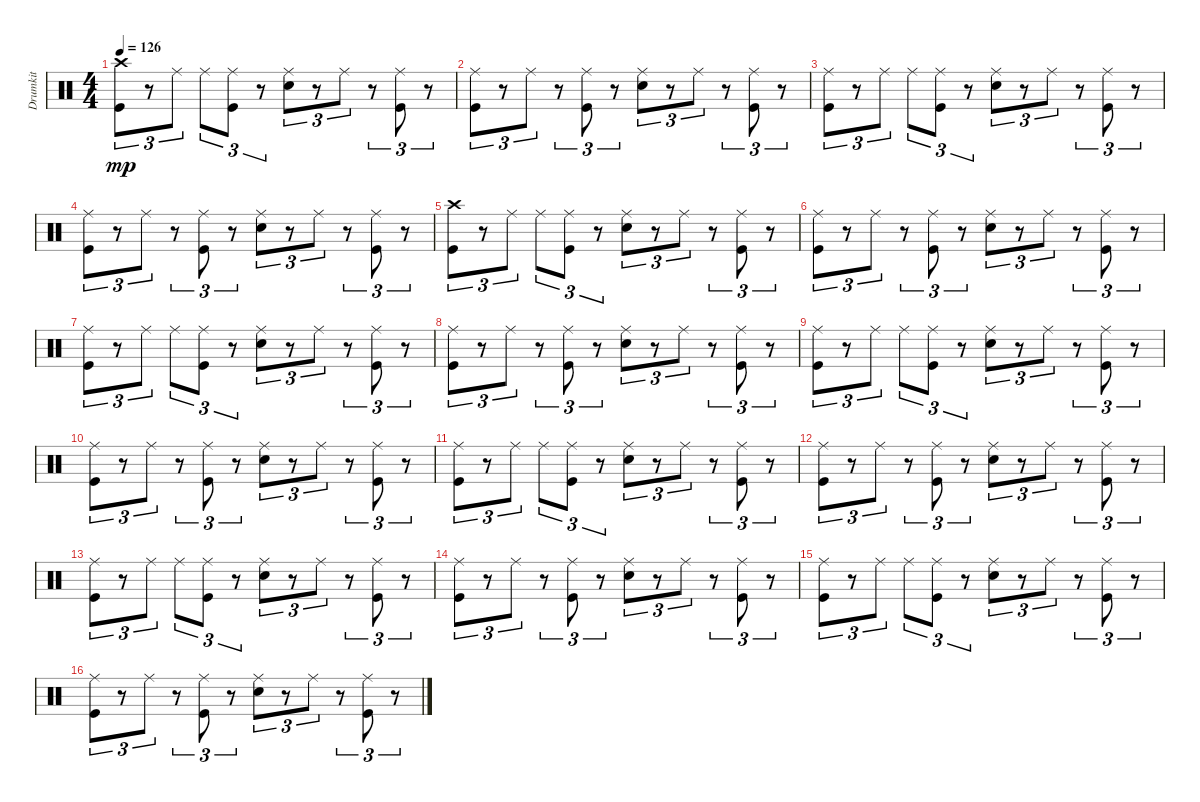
\track ("Drumkit" "Drumkit") {instrument percussion}
\staff {score}
\articulation defaults
\ts (4 4)
\tempo 126
\clef neutral
\ks c
("Crash high (hit)" "Kick (hit)").8{tu (3 2) dy mp} r.8{tu (3 2)} "Ride (middle)".8{tu (3 2)} "Ride (middle)".8{tu (3 2)} ("Kick (hit)" "Ride (middle)").8{tu (3 2)} r.8{tu (3 2)} ("Snare (hit) 2" "Ride (middle)").8{tu (3 2)} r.8{tu (3 2)} "Ride (middle)".8{tu (3 2)} r.8{tu (3 2)} ("Kick (hit)" "Ride (middle)").8{tu (3 2)} r.8{tu (3 2)} |
("Ride (middle)" "Kick (hit)").8{tu (3 2)} r.8{tu (3 2)} "Ride (middle)".8{tu (3 2)} r.8{tu (3 2)} ("Ride (middle)" "Kick (hit)").8{tu (3 2)} r.8{tu (3 2)} ("Ride (middle)" "Snare (hit) 2").8{tu (3 2)} r.8{tu (3 2)} "Ride (middle)".8{tu (3 2)} r.8{tu (3 2)} ("Ride (middle)" "Kick (hit)").8{tu (3 2)} r.8{tu (3 2)} |
("Ride (middle)" "Kick (hit)").8{tu (3 2)} r.8{tu (3 2)} "Ride (middle)".8{tu (3 2)} "Ride (middle)".8{tu (3 2)} ("Kick (hit)" "Ride (middle)").8{tu (3 2)} r.8{tu (3 2)} ("Snare (hit) 2" "Ride (middle)").8{tu (3 2)} r.8{tu (3 2)} "Ride (middle)".8{tu (3 2)} r.8{tu (3 2)} ("Kick (hit)" "Ride (middle)").8{tu (3 2)} r.8{tu (3 2)} |
("Ride (middle)" "Kick (hit)").8{tu (3 2)} r.8{tu (3 2)} "Ride (middle)".8{tu (3 2)} r.8{tu (3 2)} ("Ride (middle)" "Kick (hit)").8{tu (3 2)} r.8{tu (3 2)} ("Ride (middle)" "Snare (hit) 2").8{tu (3 2)} r.8{tu (3 2)} "Ride (middle)".8{tu (3 2)} r.8{tu (3 2)} ("Ride (middle)" "Kick (hit)").8{tu (3 2)} r.8{tu (3 2)} |
("Crash high (hit)" "Kick (hit)").8{tu (3 2)} r.8{tu (3 2)} "Ride (middle)".8{tu (3 2)} "Ride (middle)".8{tu (3 2)} ("Kick (hit)" "Ride (middle)").8{tu (3 2)} r.8{tu (3 2)} ("Snare (hit) 2" "Ride (middle)").8{tu (3 2)} r.8{tu (3 2)} "Ride (middle)".8{tu (3 2)} r.8{tu (3 2)} ("Kick (hit)" "Ride (middle)").8{tu (3 2)} r.8{tu (3 2)} |
("Ride (middle)" "Kick (hit)").8{tu (3 2)} r.8{tu (3 2)} "Ride (middle)".8{tu (3 2)} r.8{tu (3 2)} ("Ride (middle)" "Kick (hit)").8{tu (3 2)} r.8{tu (3 2)} ("Ride (middle)" "Snare (hit) 2").8{tu (3 2)} r.8{tu (3 2)} "Ride (middle)".8{tu (3 2)} r.8{tu (3 2)} ("Ride (middle)" "Kick (hit)").8{tu (3 2)} r.8{tu (3 2)} |
("Ride (middle)" "Kick (hit)").8{tu (3 2)} r.8{tu (3 2)} "Ride (middle)".8{tu (3 2)} "Ride (middle)".8{tu (3 2)} ("Kick (hit)" "Ride (middle)").8{tu (3 2)} r.8{tu (3 2)} ("Snare (hit) 2" "Ride (middle)").8{tu (3 2)} r.8{tu (3 2)} "Ride (middle)".8{tu (3 2)} r.8{tu (3 2)} ("Kick (hit)" "Ride (middle)").8{tu (3 2)} r.8{tu (3 2)} |
("Ride (middle)" "Kick (hit)").8{tu (3 2)} r.8{tu (3 2)} "Ride (middle)".8{tu (3 2)} r.8{tu (3 2)} ("Ride (middle)" "Kick (hit)").8{tu (3 2)} r.8{tu (3 2)} ("Ride (middle)" "Snare (hit) 2").8{tu (3 2)} r.8{tu (3 2)} "Ride (middle)".8{tu (3 2)} r.8{tu (3 2)} ("Ride (middle)" "Kick (hit)").8{tu (3 2)} r.8{tu (3 2)} |
("Ride (middle)" "Kick (hit)").8{tu (3 2)} r.8{tu (3 2)} "Ride (middle)".8{tu (3 2)} "Ride (middle)".8{tu (3 2)} ("Kick (hit)" "Ride (middle)").8{tu (3 2)} r.8{tu (3 2)} ("Snare (hit) 2" "Ride (middle)").8{tu (3 2)} r.8{tu (3 2)} "Ride (middle)".8{tu (3 2)} r.8{tu (3 2)} ("Kick (hit)" "Ride (middle)").8{tu (3 2)} r.8{tu (3 2)} |
("Ride (middle)" "Kick (hit)").8{tu (3 2)} r.8{tu (3 2)} "Ride (middle)".8{tu (3 2)} r.8{tu (3 2)} ("Ride (middle)" "Kick (hit)").8{tu (3 2)} r.8{tu (3 2)} ("Ride (middle)" "Snare (hit) 2").8{tu (3 2)} r.8{tu (3 2)} "Ride (middle)".8{tu (3 2)} r.8{tu (3 2)} ("Ride (middle)" "Kick (hit)").8{tu (3 2)} r.8{tu (3 2)} |
("Ride (middle)" "Kick (hit)").8{tu (3 2)} r.8{tu (3 2)} "Ride (middle)".8{tu (3 2)} "Ride (middle)".8{tu (3 2)} ("Kick (hit)" "Ride (middle)").8{tu (3 2)} r.8{tu (3 2)} ("Snare (hit) 2" "Ride (middle)").8{tu (3 2)} r.8{tu (3 2)} "Ride (middle)".8{tu (3 2)} r.8{tu (3 2)} ("Kick (hit)" "Ride (middle)").8{tu (3 2)} r.8{tu (3 2)} |
("Ride (middle)" "Kick (hit)").8{tu (3 2)} r.8{tu (3 2)} "Ride (middle)".8{tu (3 2)} r.8{tu (3 2)} ("Ride (middle)" "Kick (hit)").8{tu (3 2)} r.8{tu (3 2)} ("Ride (middle)" "Snare (hit) 2").8{tu (3 2)} r.8{tu (3 2)} "Ride (middle)".8{tu (3 2)} r.8{tu (3 2)} ("Ride (middle)" "Kick (hit)").8{tu (3 2)} r.8{tu (3 2)} |
("Ride (middle)" "Kick (hit)").8{tu (3 2)} r.8{tu (3 2)} "Ride (middle)".8{tu (3 2)} "Ride (middle)".8{tu (3 2)} ("Kick (hit)" "Ride (middle)").8{tu (3 2)} r.8{tu (3 2)} ("Snare (hit) 2" "Ride (middle)").8{tu (3 2)} r.8{tu (3 2)} "Ride (middle)".8{tu (3 2)} r.8{tu (3 2)} ("Kick (hit)" "Ride (middle)").8{tu (3 2)} r.8{tu (3 2)} |
("Ride (middle)" "Kick (hit)").8{tu (3 2)} r.8{tu (3 2)} "Ride (middle)".8{tu (3 2)} r.8{tu (3 2)} ("Ride (middle)" "Kick (hit)").8{tu (3 2)} r.8{tu (3 2)} ("Ride (middle)" "Snare (hit) 2").8{tu (3 2)} r.8{tu (3 2)} "Ride (middle)".8{tu (3 2)} r.8{tu (3 2)} ("Ride (middle)" "Kick (hit)").8{tu (3 2)} r.8{tu (3 2)} |
("Ride (middle)" "Kick (hit)").8{tu (3 2)} r.8{tu (3 2)} "Ride (middle)".8{tu (3 2)} "Ride (middle)".8{tu (3 2)} ("Kick (hit)" "Ride (middle)").8{tu (3 2)} r.8{tu (3 2)} ("Snare (hit) 2" "Ride (middle)").8{tu (3 2)} r.8{tu (3 2)} "Ride (middle)".8{tu (3 2)} r.8{tu (3 2)} ("Kick (hit)" "Ride (middle)").8{tu (3 2)} r.8{tu (3 2)} |
("Ride (middle)" "Kick (hit)").8{tu (3 2)} r.8{tu (3 2)} "Ride (middle)".8{tu (3 2)} r.8{tu (3 2)} ("Ride (middle)" "Kick (hit)").8{tu (3 2)} r.8{tu (3 2)} ("Ride (middle)" "Snare (hit) 2").8{tu (3 2)} r.8{tu (3 2)} "Ride (middle)".8{tu (3 2)} r.8{tu (3 2)} ("Ride (middle)" "Kick (hit)").8{tu (3 2)} r.8{tu (3 2)}
